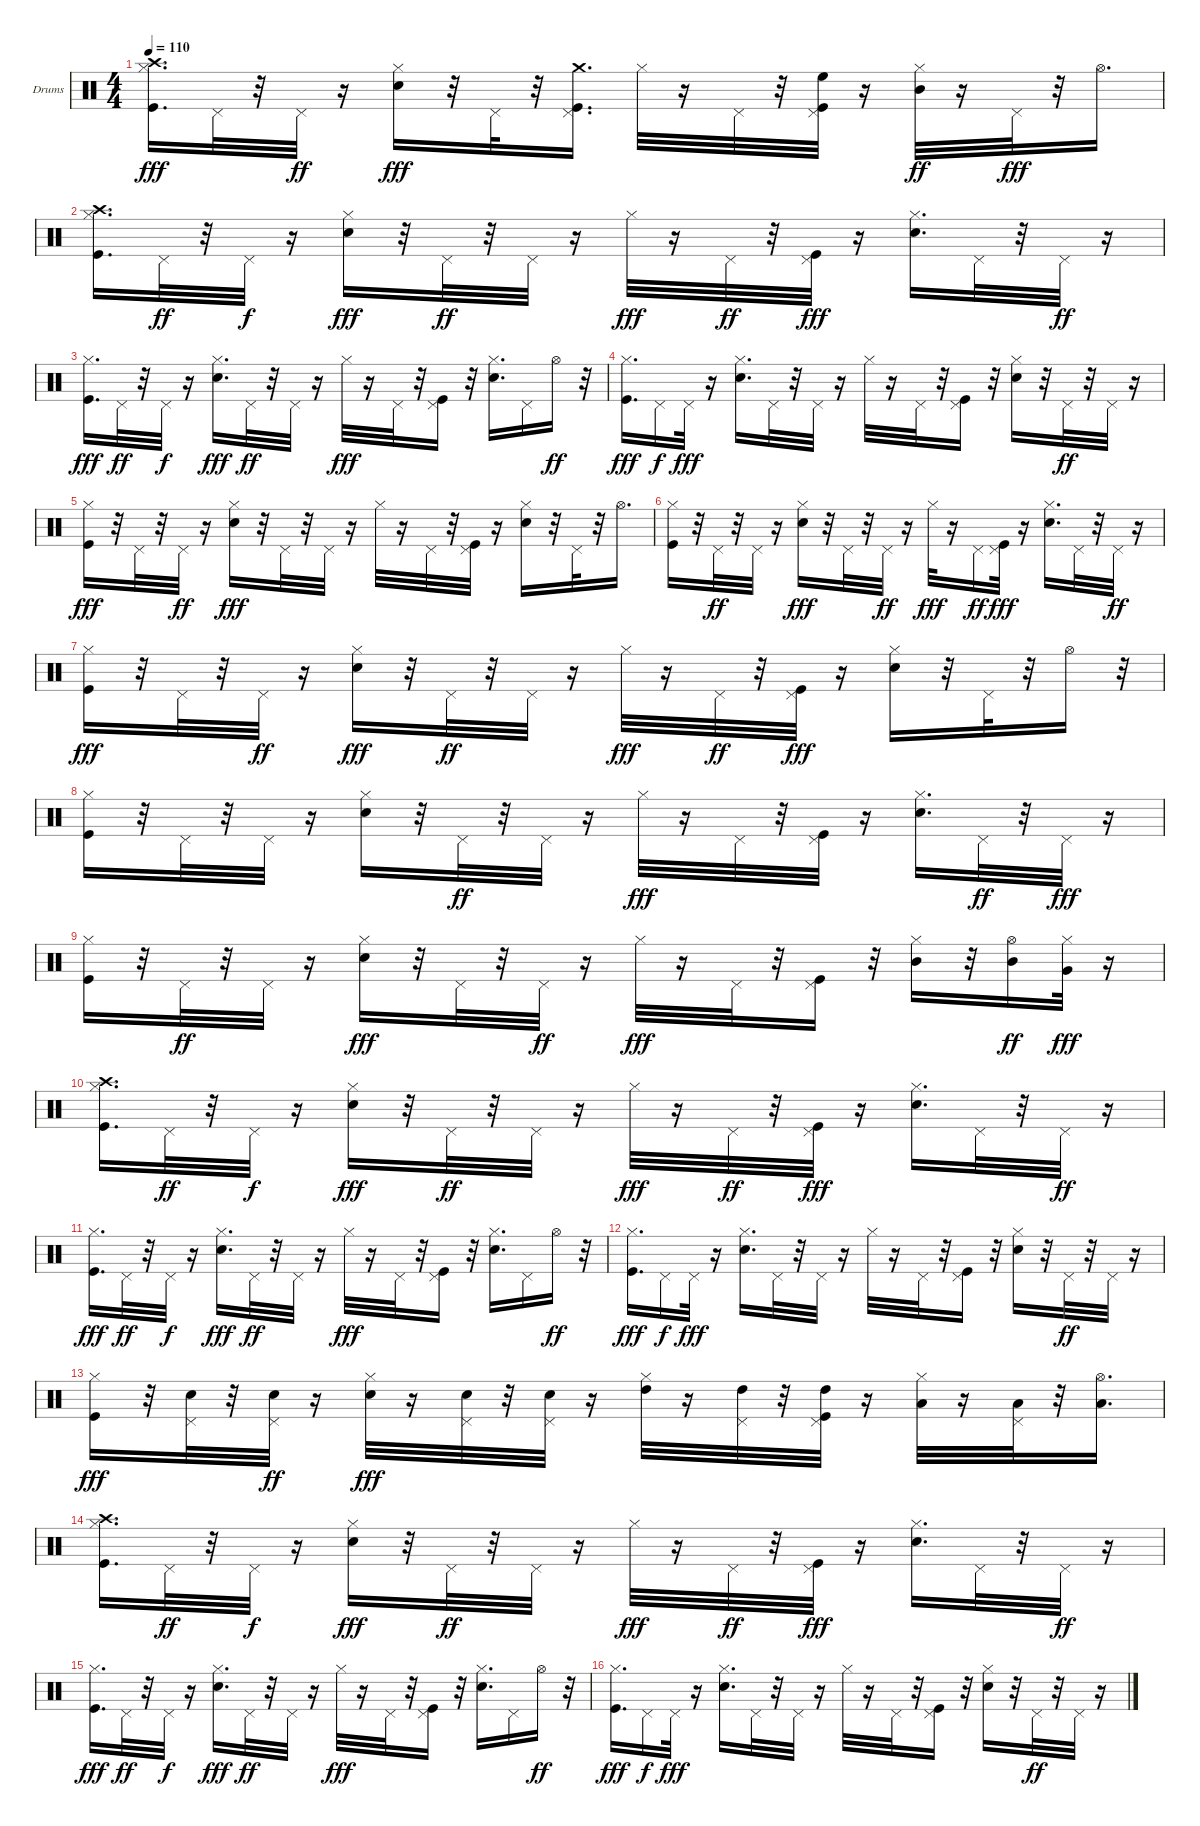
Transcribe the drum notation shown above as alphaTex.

\defaultSystemsLayout 4
\bracketExtendMode groupsimilarinstruments
\firstSystemTrackNameOrientation horizontal
\otherSystemsTrackNameOrientation horizontal
\track ("Drumkit" "Drums") {instrument percussion}
\staff {score}
\articulation defaults
\ts (4 4)
\tempo 110
\clef neutral
\ks c
("Kick (hit)" "Hi-Hat (closed)" "Crash high (hit)").16{d dy fff} "Pedal Hi-Hat (hit)".32 r.32 "Pedal Hi-Hat (hit)".32{dy ff} r.16 ("Snare (hit) 2" "Hi-Hat (closed)").16{dy fff} r.32 "Pedal Hi-Hat (hit)".32 r.32 ("Pedal Hi-Hat (hit)" "Kick (hit)" "Crash medium (hit)").16{d} "Hi-Hat (closed)".32 r.16 "Pedal Hi-Hat (hit)".32 r.32 ("Kick (hit)" "Pedal Hi-Hat (hit)" "High Floor Tom (hit)").32 r.16 ("Mid Tom (hit)" "Hi-Hat (closed)").32{dy ff} r.16 "Pedal Hi-Hat (hit)".32{dy fff} r.32 "Hi-Hat (open)".16{d} |
("Kick (hit)" "Crash high (hit)" "Hi-Hat (closed)").16{d} "Pedal Hi-Hat (hit)".32{dy ff} r.32 "Pedal Hi-Hat (hit)".32{dy f} r.16 ("Snare (hit) 2" "Hi-Hat (closed)").16{dy fff} r.32 "Pedal Hi-Hat (hit)".32{dy ff} r.32 "Pedal Hi-Hat (hit)".32 r.16 "Hi-Hat (closed)".32{dy fff} r.16 "Pedal Hi-Hat (hit)".32{dy ff} r.32 ("Kick (hit)" "Pedal Hi-Hat (hit)").32{dy fff} r.16 ("Snare (hit) 2" "Hi-Hat (closed)").16{d} "Pedal Hi-Hat (hit)".32 r.32 "Pedal Hi-Hat (hit)".32{dy ff} r.16 |
("Kick (hit)" "Hi-Hat (closed)").16{d dy fff} "Pedal Hi-Hat (hit)".32{dy ff} r.32 "Pedal Hi-Hat (hit)".32{dy f} r.16 ("Snare (hit) 2" "Hi-Hat (closed)").16{d dy fff} "Pedal Hi-Hat (hit)".32{dy ff} r.32 "Pedal Hi-Hat (hit)".32 r.16 "Hi-Hat (closed)".32{dy fff} r.16 "Pedal Hi-Hat (hit)".32 r.32 ("Kick (hit)" "Pedal Hi-Hat (hit)").16 r.32 ("Snare (hit) 2" "Hi-Hat (closed)").16{d} "Pedal Hi-Hat (hit)".16 "Hi-Hat (open)".16{dy ff} r.32 |
("Kick (hit)" "Hi-Hat (closed)").16{d dy fff} "Pedal Hi-Hat (hit)".16{dy f} "Pedal Hi-Hat (hit)".32{dy fff} r.16 ("Snare (hit) 2" "Hi-Hat (closed)").16{d} "Pedal Hi-Hat (hit)".32 r.32 "Pedal Hi-Hat (hit)".32 r.16 "Hi-Hat (closed)".32 r.16 "Pedal Hi-Hat (hit)".32 r.32 ("Kick (hit)" "Pedal Hi-Hat (hit)").16 r.32 ("Snare (hit) 2" "Hi-Hat (closed)").16 r.32 "Pedal Hi-Hat (hit)".32{dy ff} r.32 "Pedal Hi-Hat (hit)".32 r.16 |
("Kick (hit)" "Hi-Hat (closed)").16{dy fff} r.32 "Pedal Hi-Hat (hit)".32 r.32 "Pedal Hi-Hat (hit)".32{dy ff} r.16 ("Snare (hit) 2" "Hi-Hat (closed)").16{dy fff} r.32 "Pedal Hi-Hat (hit)".32 r.32 "Pedal Hi-Hat (hit)".32 r.16 "Hi-Hat (closed)".32 r.16 "Pedal Hi-Hat (hit)".32 r.32 ("Kick (hit)" "Pedal Hi-Hat (hit)").32 r.16 ("Snare (hit) 2" "Hi-Hat (closed)").16 r.32 "Pedal Hi-Hat (hit)".32 r.32 "Hi-Hat (open)".16{d} |
("Kick (hit)" "Hi-Hat (closed)").16 r.32 "Pedal Hi-Hat (hit)".32{dy ff} r.32 "Pedal Hi-Hat (hit)".32 r.16 ("Snare (hit) 2" "Hi-Hat (closed)").16{dy fff} r.32 "Pedal Hi-Hat (hit)".32 r.32 "Pedal Hi-Hat (hit)".32{dy ff} r.16 "Hi-Hat (closed)".32{dy fff} r.16 "Pedal Hi-Hat (hit)".16{dy ff} ("Kick (hit)" "Pedal Hi-Hat (hit)").32{dy fff} r.16 ("Snare (hit) 2" "Hi-Hat (closed)").16{d} "Pedal Hi-Hat (hit)".32 r.32 "Pedal Hi-Hat (hit)".32{dy ff} r.16 |
("Kick (hit)" "Hi-Hat (closed)").16{dy fff} r.32 "Pedal Hi-Hat (hit)".32 r.32 "Pedal Hi-Hat (hit)".32{dy ff} r.16 ("Snare (hit) 2" "Hi-Hat (closed)").16{dy fff} r.32 "Pedal Hi-Hat (hit)".32{dy ff} r.32 "Pedal Hi-Hat (hit)".32 r.16 "Hi-Hat (closed)".32{dy fff} r.16 "Pedal Hi-Hat (hit)".32{dy ff} r.32 ("Kick (hit)" "Pedal Hi-Hat (hit)").32{dy fff} r.16 ("Snare (hit) 2" "Hi-Hat (closed)").16 r.32 "Pedal Hi-Hat (hit)".32 r.32 "Hi-Hat (open)".16 r.32 |
("Kick (hit)" "Hi-Hat (closed)").16 r.32 "Pedal Hi-Hat (hit)".32 r.32 "Pedal Hi-Hat (hit)".32 r.16 ("Snare (hit) 2" "Hi-Hat (closed)").16 r.32 "Pedal Hi-Hat (hit)".32{dy ff} r.32 "Pedal Hi-Hat (hit)".32 r.16 "Hi-Hat (closed)".32{dy fff} r.16 "Pedal Hi-Hat (hit)".32 r.32 ("Kick (hit)" "Pedal Hi-Hat (hit)").32 r.16 ("Snare (hit) 2" "Hi-Hat (closed)").16{d} "Pedal Hi-Hat (hit)".32{dy ff} r.32 "Pedal Hi-Hat (hit)".32{dy fff} r.16 |
("Kick (hit)" "Hi-Hat (closed)").16 r.32 "Pedal Hi-Hat (hit)".32{dy ff} r.32 "Pedal Hi-Hat (hit)".32 r.16 ("Snare (hit) 2" "Hi-Hat (closed)").16{dy fff} r.32 "Pedal Hi-Hat (hit)".32 r.32 "Pedal Hi-Hat (hit)".32{dy ff} r.16 "Hi-Hat (closed)".32{dy fff} r.16 "Pedal Hi-Hat (hit)".32 r.32 ("Kick (hit)" "Pedal Hi-Hat (hit)").16 r.32 ("Mid Tom (hit)" "Hi-Hat (closed)").16 r.32 ("Mid Tom (hit)" "Hi-Hat (open)").16{dy ff} ("Very Low Tom (hit)" "Hi-Hat (closed)").32{dy fff} r.16 |
("Kick (hit)" "Crash high (hit)" "Hi-Hat (closed)").16{d} "Pedal Hi-Hat (hit)".32{dy ff} r.32 "Pedal Hi-Hat (hit)".32{dy f} r.16 ("Snare (hit) 2" "Hi-Hat (closed)").16{dy fff} r.32 "Pedal Hi-Hat (hit)".32{dy ff} r.32 "Pedal Hi-Hat (hit)".32 r.16 "Hi-Hat (closed)".32{dy fff} r.16 "Pedal Hi-Hat (hit)".32{dy ff} r.32 ("Kick (hit)" "Pedal Hi-Hat (hit)").32{dy fff} r.16 ("Snare (hit) 2" "Hi-Hat (closed)").16{d} "Pedal Hi-Hat (hit)".32 r.32 "Pedal Hi-Hat (hit)".32{dy ff} r.16 |
("Kick (hit)" "Hi-Hat (closed)").16{d dy fff} "Pedal Hi-Hat (hit)".32{dy ff} r.32 "Pedal Hi-Hat (hit)".32{dy f} r.16 ("Snare (hit) 2" "Hi-Hat (closed)").16{d dy fff} "Pedal Hi-Hat (hit)".32{dy ff} r.32 "Pedal Hi-Hat (hit)".32 r.16 "Hi-Hat (closed)".32{dy fff} r.16 "Pedal Hi-Hat (hit)".32 r.32 ("Kick (hit)" "Pedal Hi-Hat (hit)").16 r.32 ("Snare (hit) 2" "Hi-Hat (closed)").16{d} "Pedal Hi-Hat (hit)".16 "Hi-Hat (open)".16{dy ff} r.32 |
("Kick (hit)" "Hi-Hat (closed)").16{d dy fff} "Pedal Hi-Hat (hit)".16{dy f} "Pedal Hi-Hat (hit)".32{dy fff} r.16 ("Snare (hit) 2" "Hi-Hat (closed)").16{d} "Pedal Hi-Hat (hit)".32 r.32 "Pedal Hi-Hat (hit)".32 r.16 "Hi-Hat (closed)".32 r.16 "Pedal Hi-Hat (hit)".32 r.32 ("Kick (hit)" "Pedal Hi-Hat (hit)").16 r.32 ("Snare (hit) 2" "Hi-Hat (closed)").16 r.32 "Pedal Hi-Hat (hit)".32{dy ff} r.32 "Pedal Hi-Hat (hit)".32 r.16 |
("Kick (hit)" "Hi-Hat (closed)").16{dy fff} r.32 ("Pedal Hi-Hat (hit)" "Snare (hit) 2").32 r.32 ("Pedal Hi-Hat (hit)" "Snare (hit) 2").32{dy ff} r.16 ("Hi-Hat (closed)" "Snare (hit) 2").32{dy fff} r.16 ("Pedal Hi-Hat (hit)" "Snare (hit) 2").32 r.32 ("Pedal Hi-Hat (hit)" "Snare (hit) 2").32 r.16 ("Hi-Hat (closed)" "High Tom (hit)").32 r.16 ("Pedal Hi-Hat (hit)" "High Tom (hit)").32 r.32 ("Kick (hit)" "Pedal Hi-Hat (hit)" "High Tom (hit)").32 r.16 ("Hi-Hat (closed)" "Low Tom (hit)").32 r.16 ("Pedal Hi-Hat (hit)" "Low Tom (hit)").32 r.32 ("Hi-Hat (open)" "Low Tom (hit)").16{d} |
("Kick (hit)" "Crash high (hit)" "Hi-Hat (closed)").16{d} "Pedal Hi-Hat (hit)".32{dy ff} r.32 "Pedal Hi-Hat (hit)".32{dy f} r.16 ("Snare (hit) 2" "Hi-Hat (closed)").16{dy fff} r.32 "Pedal Hi-Hat (hit)".32{dy ff} r.32 "Pedal Hi-Hat (hit)".32 r.16 "Hi-Hat (closed)".32{dy fff} r.16 "Pedal Hi-Hat (hit)".32{dy ff} r.32 ("Kick (hit)" "Pedal Hi-Hat (hit)").32{dy fff} r.16 ("Snare (hit) 2" "Hi-Hat (closed)").16{d} "Pedal Hi-Hat (hit)".32 r.32 "Pedal Hi-Hat (hit)".32{dy ff} r.16 |
("Kick (hit)" "Hi-Hat (closed)").16{d dy fff} "Pedal Hi-Hat (hit)".32{dy ff} r.32 "Pedal Hi-Hat (hit)".32{dy f} r.16 ("Snare (hit) 2" "Hi-Hat (closed)").16{d dy fff} "Pedal Hi-Hat (hit)".32{dy ff} r.32 "Pedal Hi-Hat (hit)".32 r.16 "Hi-Hat (closed)".32{dy fff} r.16 "Pedal Hi-Hat (hit)".32 r.32 ("Kick (hit)" "Pedal Hi-Hat (hit)").16 r.32 ("Snare (hit) 2" "Hi-Hat (closed)").16{d} "Pedal Hi-Hat (hit)".16 "Hi-Hat (open)".16{dy ff} r.32 |
("Kick (hit)" "Hi-Hat (closed)").16{d dy fff} "Pedal Hi-Hat (hit)".16{dy f} "Pedal Hi-Hat (hit)".32{dy fff} r.16 ("Snare (hit) 2" "Hi-Hat (closed)").16{d} "Pedal Hi-Hat (hit)".32 r.32 "Pedal Hi-Hat (hit)".32 r.16 "Hi-Hat (closed)".32 r.16 "Pedal Hi-Hat (hit)".32 r.32 ("Kick (hit)" "Pedal Hi-Hat (hit)").16 r.32 ("Snare (hit) 2" "Hi-Hat (closed)").16 r.32 "Pedal Hi-Hat (hit)".32{dy ff} r.32 "Pedal Hi-Hat (hit)".32 r.16
